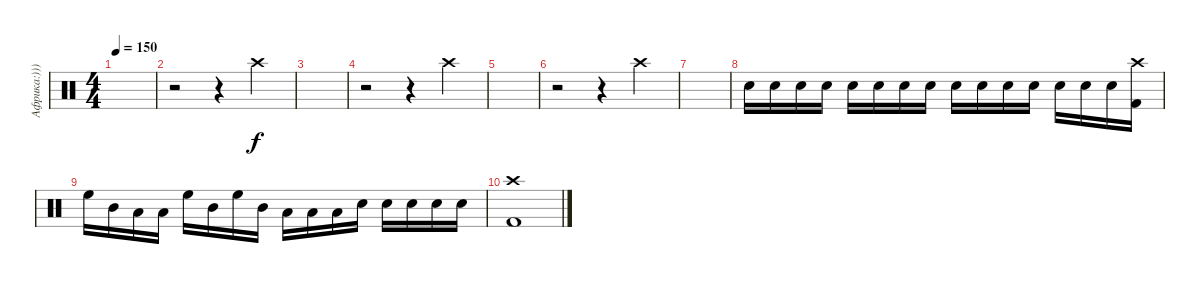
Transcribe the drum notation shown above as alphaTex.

\track ("Африка:)))))" "Африка:)))") {instrument percussion}
\staff {score}
\articulation defaults
\ts (4 4)
\tempo 150
\clef neutral
\ks c
|
r.2 r.4 "Crash high (hit)".4 |
|
r.2 r.4 "Crash high (hit)".4 |
|
r.2 r.4 "Crash high (hit)".4 |
|
"Snare (hit) 2".16 "Snare (hit) 2".16 "Snare (hit) 2".16 "Snare (hit) 2".16 "Snare (hit) 2".16 "Snare (hit) 2".16 "Snare (hit) 2".16 "Snare (hit) 2".16 "Snare (hit) 2".16 "Snare (hit) 2".16 "Snare (hit) 2".16 "Snare (hit) 2".16 "Snare (hit) 2".16 "Snare (hit) 2".16 "Snare (hit) 2".16 ("Crash high (hit)" "Kick (hit) 2").16 |
"High Floor Tom (hit)".16 "Mid Tom (hit)".16 "Low Tom (hit)".16 "Low Floor Tom (hit)".16 "High Floor Tom (hit)".16 "Mid Tom (hit)".16 "High Floor Tom (hit)".16 "Mid Tom (hit)".16 "Low Tom (hit)".16 "Low Tom (hit)".16 "Low Floor Tom (hit)".16 "Snare (hit) 2".16 "Snare (hit) 2".16 "Snare (hit) 2".16 "Snare (hit) 2".16 "Snare (hit) 2".16 |
("Crash high (hit)" "Kick (hit) 2").1
